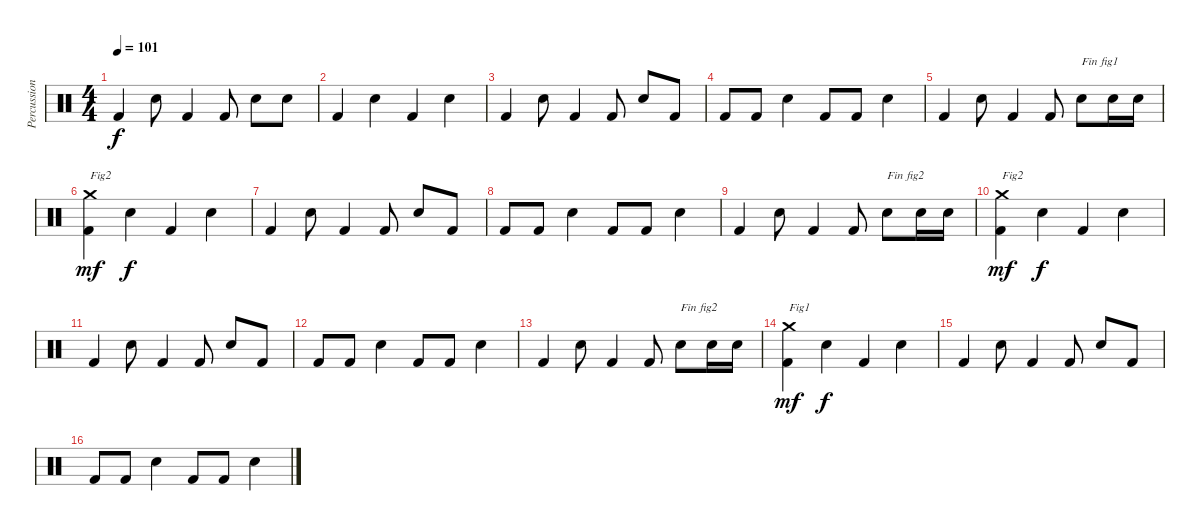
\track ("Percussions" "Percussion") {instrument percussion}
\staff {score}
\articulation defaults
\ts (4 4)
\tempo 101
\clef neutral
\ks c "Kick (hit) 2".4{dy f} "Snare (hit) 2".8 "Kick (hit) 2".4 "Kick (hit) 2".8 "Snare (hit) 2".8 "Snare (hit) 2".8
|
"Kick (hit) 2".4 "Snare (hit) 2".4 "Kick (hit) 2".4 "Snare (hit) 2".4 |
"Kick (hit) 2".4 "Snare (hit) 2".8 "Kick (hit) 2".4 "Kick (hit) 2".8 "Snare (hit) 2".8 "Kick (hit) 2".8 |
"Kick (hit) 2".8 "Kick (hit) 2".8 "Snare (hit) 2".4 "Kick (hit) 2".8 "Kick (hit) 2".8 "Snare (hit) 2".4 |
"Kick (hit) 2".4 "Snare (hit) 2".8 "Kick (hit) 2".4 "Kick (hit) 2".8 "Snare (hit) 2".8{txt "Fin fig1"} "Snare (hit) 2".16 "Snare (hit) 2".16 |
("Kick (hit) 2" "Crash medium (hit)").4{txt "Fig2" dy mf} "Snare (hit) 2".4{dy f} "Kick (hit) 2".4 "Snare (hit) 2".4 |
"Kick (hit) 2".4 "Snare (hit) 2".8 "Kick (hit) 2".4 "Kick (hit) 2".8 "Snare (hit) 2".8 "Kick (hit) 2".8 |
"Kick (hit) 2".8 "Kick (hit) 2".8 "Snare (hit) 2".4 "Kick (hit) 2".8 "Kick (hit) 2".8 "Snare (hit) 2".4 |
"Kick (hit) 2".4 "Snare (hit) 2".8 "Kick (hit) 2".4 "Kick (hit) 2".8 "Snare (hit) 2".8{txt "Fin fig2"} "Snare (hit) 2".16 "Snare (hit) 2".16 |
("Kick (hit) 2" "Crash medium (hit)").4{txt "Fig2" dy mf} "Snare (hit) 2".4{dy f} "Kick (hit) 2".4 "Snare (hit) 2".4 |
"Kick (hit) 2".4 "Snare (hit) 2".8 "Kick (hit) 2".4 "Kick (hit) 2".8 "Snare (hit) 2".8 "Kick (hit) 2".8 |
"Kick (hit) 2".8 "Kick (hit) 2".8 "Snare (hit) 2".4 "Kick (hit) 2".8 "Kick (hit) 2".8 "Snare (hit) 2".4 |
"Kick (hit) 2".4 "Snare (hit) 2".8 "Kick (hit) 2".4 "Kick (hit) 2".8 "Snare (hit) 2".8{txt "Fin fig2"} "Snare (hit) 2".16 "Snare (hit) 2".16 |
("Kick (hit) 2" "Crash medium (hit)").4{txt "Fig1" dy mf} "Snare (hit) 2".4{dy f} "Kick (hit) 2".4 "Snare (hit) 2".4 |
"Kick (hit) 2".4 "Snare (hit) 2".8 "Kick (hit) 2".4 "Kick (hit) 2".8 "Snare (hit) 2".8 "Kick (hit) 2".8 |
"Kick (hit) 2".8 "Kick (hit) 2".8 "Snare (hit) 2".4 "Kick (hit) 2".8 "Kick (hit) 2".8 "Snare (hit) 2".4
